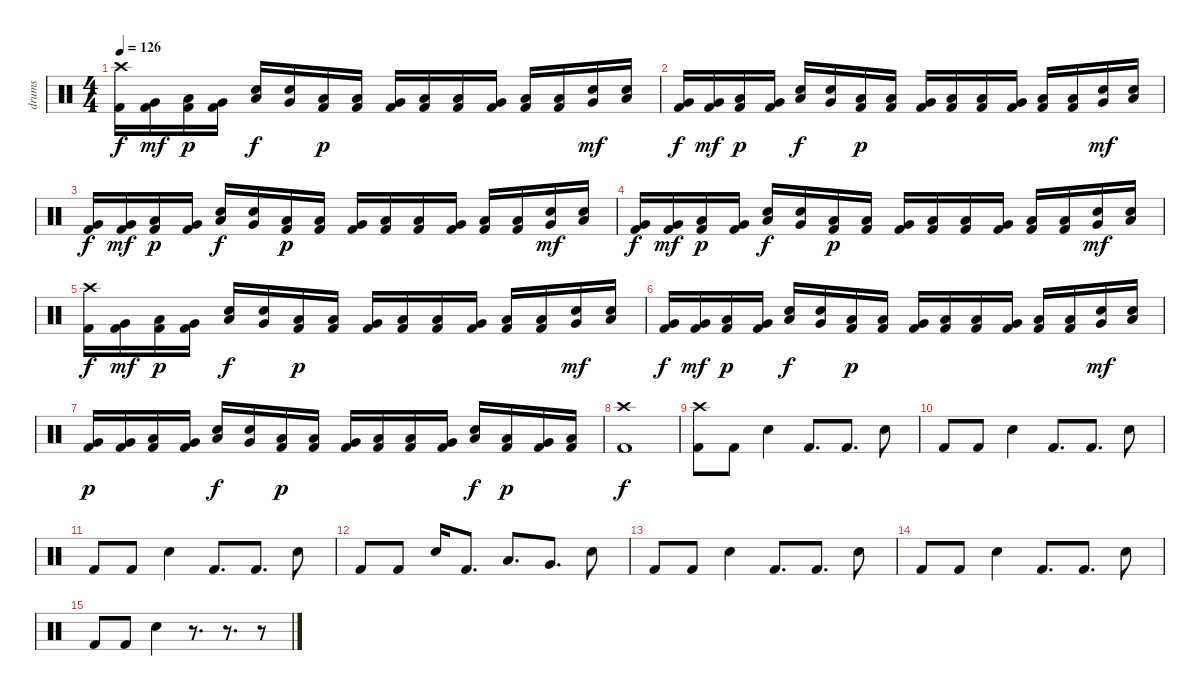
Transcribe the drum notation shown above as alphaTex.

\track ("drums" "drums") {instrument percussion}
\staff {score}
\articulation defaults
\ts (4 4)
\tempo 126
\clef neutral
\ks c
("Kick (hit) 2" "Crash high (hit)").16{dy f} ("Very Low Tom (hit)" "Kick (hit) 2").16{bd 480 dy mf} ("Low Floor Tom (hit)" "Kick (hit) 2").16{bd 480 dy p} ("Very Low Tom (hit)" "Kick (hit) 2").16{bd 480} ("Low Tom (hit)" "Snare (hit) 2").16{dy f} ("Very Low Tom (hit)" "Snare (hit) 2").16 ("Low Floor Tom (hit)" "Kick (hit) 2").16{bd 480 dy p} ("Low Tom (hit)" "Kick (hit) 2").16{bd 480} ("Very Low Tom (hit)" "Kick (hit) 2").16{bd 480} ("Low Floor Tom (hit)" "Kick (hit) 2").16{bd 480} ("Low Tom (hit)" "Kick (hit) 2").16{bd 480} ("Very Low Tom (hit)" "Kick (hit) 2").16{bd 480} ("Low Floor Tom (hit)" "Kick (hit) 2").16{bd 480} ("Low Tom (hit)" "Kick (hit) 2").16{bd 480} ("Very Low Tom (hit)" "Snare (hit) 2").16{bd 480 dy mf} ("Low Floor Tom (hit)" "Snare (hit) 2").16{bd 480} |
("Very Low Tom (hit)" "Kick (hit) 2").16{dy f} ("Very Low Tom (hit)" "Kick (hit) 2").16{bd 480 dy mf} ("Low Floor Tom (hit)" "Kick (hit) 2").16{bd 480 dy p} ("Very Low Tom (hit)" "Kick (hit) 2").16{bd 480} ("Low Tom (hit)" "Snare (hit) 2").16{dy f} ("Very Low Tom (hit)" "Snare (hit) 2").16 ("Low Floor Tom (hit)" "Kick (hit) 2").16{bd 480 dy p} ("Low Tom (hit)" "Kick (hit) 2").16{bd 480} ("Very Low Tom (hit)" "Kick (hit) 2").16{bd 480} ("Low Floor Tom (hit)" "Kick (hit) 2").16{bd 480} ("Low Tom (hit)" "Kick (hit) 2").16{bd 480} ("Very Low Tom (hit)" "Kick (hit) 2").16{bd 480} ("Low Floor Tom (hit)" "Kick (hit) 2").16{bd 480} ("Low Tom (hit)" "Kick (hit) 2").16{bd 480} ("Very Low Tom (hit)" "Snare (hit) 2").16{bd 480 dy mf} ("Low Floor Tom (hit)" "Snare (hit) 2").16{bd 480} |
("Very Low Tom (hit)" "Kick (hit) 2").16{dy f} ("Very Low Tom (hit)" "Kick (hit) 2").16{bd 480 dy mf} ("Low Floor Tom (hit)" "Kick (hit) 2").16{bd 480 dy p} ("Very Low Tom (hit)" "Kick (hit) 2").16{bd 480} ("Low Tom (hit)" "Snare (hit) 2").16{dy f} ("Very Low Tom (hit)" "Snare (hit) 2").16 ("Low Floor Tom (hit)" "Kick (hit) 2").16{bd 480 dy p} ("Low Tom (hit)" "Kick (hit) 2").16{bd 480} ("Very Low Tom (hit)" "Kick (hit) 2").16{bd 480} ("Low Floor Tom (hit)" "Kick (hit) 2").16{bd 480} ("Low Tom (hit)" "Kick (hit) 2").16{bd 480} ("Very Low Tom (hit)" "Kick (hit) 2").16{bd 480} ("Low Floor Tom (hit)" "Kick (hit) 2").16{bd 480} ("Low Tom (hit)" "Kick (hit) 2").16{bd 480} ("Very Low Tom (hit)" "Snare (hit) 2").16{bd 480 dy mf} ("Low Floor Tom (hit)" "Snare (hit) 2").16{bd 480} |
("Very Low Tom (hit)" "Kick (hit) 2").16{dy f} ("Very Low Tom (hit)" "Kick (hit) 2").16{bd 480 dy mf} ("Low Floor Tom (hit)" "Kick (hit) 2").16{bd 480 dy p} ("Very Low Tom (hit)" "Kick (hit) 2").16{bd 480} ("Low Tom (hit)" "Snare (hit) 2").16{dy f} ("Very Low Tom (hit)" "Snare (hit) 2").16 ("Low Floor Tom (hit)" "Kick (hit) 2").16{bd 480 dy p} ("Low Tom (hit)" "Kick (hit) 2").16{bd 480} ("Very Low Tom (hit)" "Kick (hit) 2").16{bd 480} ("Low Floor Tom (hit)" "Kick (hit) 2").16{bd 480} ("Low Tom (hit)" "Kick (hit) 2").16{bd 480} ("Very Low Tom (hit)" "Kick (hit) 2").16{bd 480} ("Low Floor Tom (hit)" "Kick (hit) 2").16{bd 480} ("Low Tom (hit)" "Kick (hit) 2").16{bd 480} ("Very Low Tom (hit)" "Snare (hit) 2").16{bd 480 dy mf} ("Low Floor Tom (hit)" "Snare (hit) 2").16{bd 480} |
("Kick (hit) 2" "Crash high (hit)").16{dy f} ("Very Low Tom (hit)" "Kick (hit) 2").16{bd 480 dy mf} ("Low Floor Tom (hit)" "Kick (hit) 2").16{bd 480 dy p} ("Very Low Tom (hit)" "Kick (hit) 2").16{bd 480} ("Low Tom (hit)" "Snare (hit) 2").16{dy f} ("Very Low Tom (hit)" "Snare (hit) 2").16 ("Low Floor Tom (hit)" "Kick (hit) 2").16{bd 480 dy p} ("Low Tom (hit)" "Kick (hit) 2").16{bd 480} ("Very Low Tom (hit)" "Kick (hit) 2").16{bd 480} ("Low Floor Tom (hit)" "Kick (hit) 2").16{bd 480} ("Low Tom (hit)" "Kick (hit) 2").16{bd 480} ("Very Low Tom (hit)" "Kick (hit) 2").16{bd 480} ("Low Floor Tom (hit)" "Kick (hit) 2").16{bd 480} ("Low Tom (hit)" "Kick (hit) 2").16{bd 480} ("Very Low Tom (hit)" "Snare (hit) 2").16{bd 480 dy mf} ("Low Floor Tom (hit)" "Snare (hit) 2").16{bd 480} |
("Very Low Tom (hit)" "Kick (hit) 2").16{dy f} ("Very Low Tom (hit)" "Kick (hit) 2").16{bd 480 dy mf} ("Low Floor Tom (hit)" "Kick (hit) 2").16{bd 480 dy p} ("Very Low Tom (hit)" "Kick (hit) 2").16{bd 480} ("Low Tom (hit)" "Snare (hit) 2").16{dy f} ("Very Low Tom (hit)" "Snare (hit) 2").16 ("Low Floor Tom (hit)" "Kick (hit) 2").16{bd 480 dy p} ("Low Tom (hit)" "Kick (hit) 2").16{bd 480} ("Very Low Tom (hit)" "Kick (hit) 2").16{bd 480} ("Low Floor Tom (hit)" "Kick (hit) 2").16{bd 480} ("Low Tom (hit)" "Kick (hit) 2").16{bd 480} ("Very Low Tom (hit)" "Kick (hit) 2").16{bd 480} ("Low Floor Tom (hit)" "Kick (hit) 2").16{bd 480} ("Low Tom (hit)" "Kick (hit) 2").16{bd 480} ("Very Low Tom (hit)" "Snare (hit) 2").16{bd 480 dy mf} ("Low Floor Tom (hit)" "Snare (hit) 2").16{bd 480} |
("Very Low Tom (hit)" "Kick (hit) 2").16{dy p} ("Very Low Tom (hit)" "Kick (hit) 2").16{bd 480} ("Low Floor Tom (hit)" "Kick (hit) 2").16{bd 480} ("Very Low Tom (hit)" "Kick (hit) 2").16{bd 480} ("Low Tom (hit)" "Snare (hit) 2").16{dy f} ("Very Low Tom (hit)" "Snare (hit) 2").16 ("Low Floor Tom (hit)" "Kick (hit) 2").16{bd 480 dy p} ("Low Tom (hit)" "Kick (hit) 2").16{bd 480} ("Very Low Tom (hit)" "Kick (hit) 2").16{bd 480} ("Low Floor Tom (hit)" "Kick (hit) 2").16{bd 480} ("Low Tom (hit)" "Kick (hit) 2").16{bd 480} ("Very Low Tom (hit)" "Kick (hit) 2").16{bd 480} ("Low Floor Tom (hit)" "Snare (hit) 2").16{bd 480 dy f} ("Low Tom (hit)" "Kick (hit) 2").16{bd 480 dy p} ("Very Low Tom (hit)" "Kick (hit) 2").16{bd 480} ("Low Floor Tom (hit)" "Kick (hit) 2").16{bd 480} |
("Crash high (hit)" "Kick (hit) 2").1{dy f} |
("Kick (hit) 2" "Crash high (hit)").8 "Kick (hit) 2".8 "Snare (hit) 2".4 "Kick (hit) 2".8{d} "Kick (hit) 2".8{d} "Snare (hit) 2".8 |
"Kick (hit) 2".8 "Kick (hit) 2".8 "Snare (hit) 2".4 "Kick (hit) 2".8{d} "Kick (hit) 2".8{d} "Snare (hit) 2".8 |
"Kick (hit) 2".8 "Kick (hit) 2".8 "Snare (hit) 2".4 "Kick (hit) 2".8{d} "Kick (hit) 2".8{d} "Snare (hit) 2".8 |
"Kick (hit) 2".8 "Kick (hit) 2".8 "Snare (hit) 2".16 "Kick (hit) 2".8{d} "Low Tom (hit)".8{d} "Very Low Tom (hit)".8{d} "Snare (hit) 2".8 |
"Kick (hit) 2".8 "Kick (hit) 2".8 "Snare (hit) 2".4 "Kick (hit) 2".8{d} "Kick (hit) 2".8{d} "Snare (hit) 2".8 |
"Kick (hit) 2".8 "Kick (hit) 2".8 "Snare (hit) 2".4 "Kick (hit) 2".8{d} "Kick (hit) 2".8{d} "Snare (hit) 2".8 |
"Kick (hit) 2".8 "Kick (hit) 2".8 "Snare (hit) 2".4 r.8{d} r.8{d} r.8
